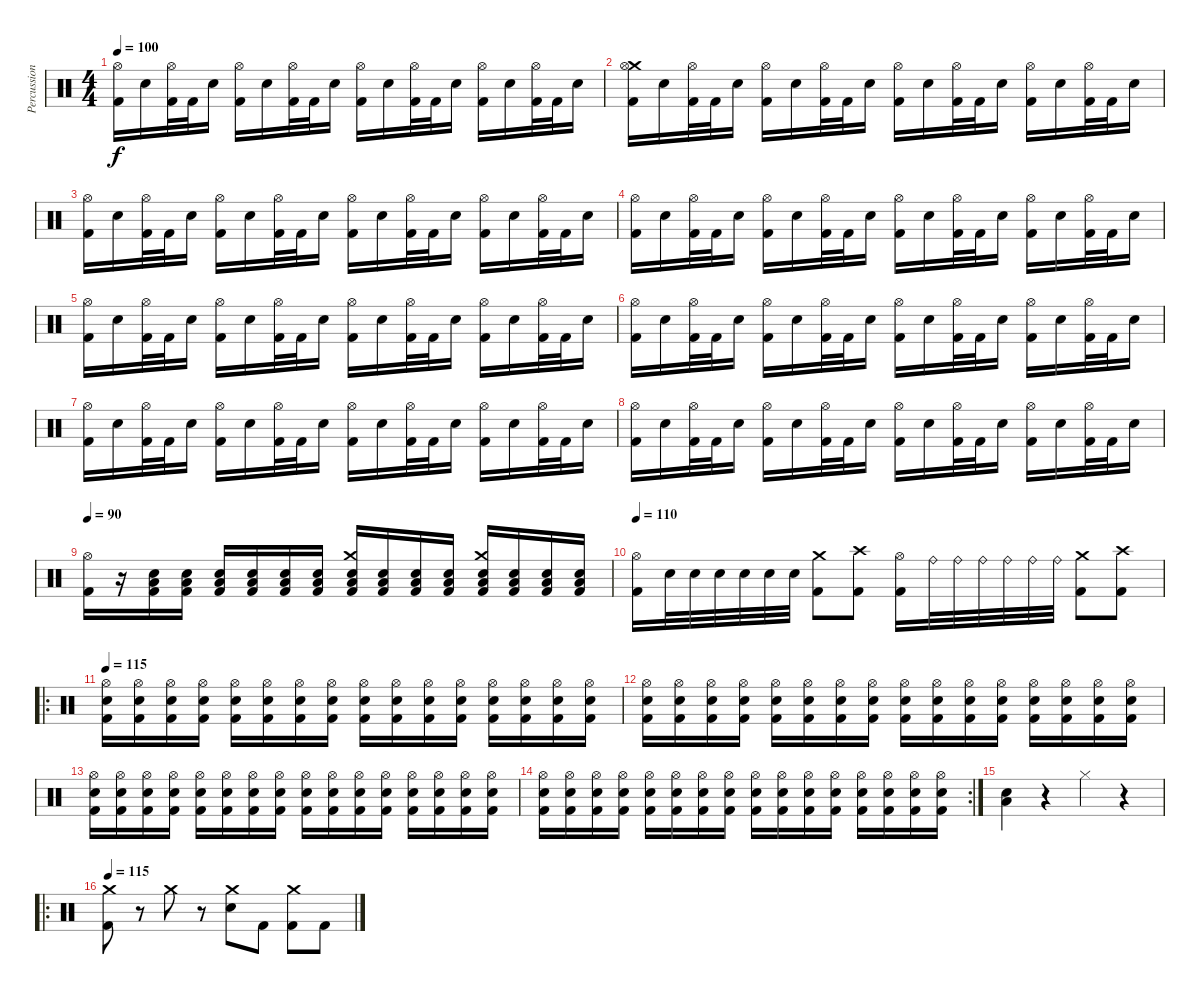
\track ("Percussion" "Percussion") {instrument percussion}
\staff {score}
\articulation defaults
\ts (4 4)
\tempo 100
\clef neutral
\ks c
("Hi-Hat (open)" "Kick (hit) 2").16{dy f} "Snare (hit) 2".16 ("Hi-Hat (open)" "Kick (hit) 2").32 "Kick (hit) 2".32 "Snare (hit) 2".16 ("Hi-Hat (open)" "Kick (hit) 2").16 "Snare (hit) 2".16 ("Hi-Hat (open)" "Kick (hit) 2").32 "Kick (hit) 2".32 "Snare (hit) 2".16 ("Hi-Hat (open)" "Kick (hit) 2").16 "Snare (hit) 2".16 ("Hi-Hat (open)" "Kick (hit) 2").32 "Kick (hit) 2".32 "Snare (hit) 2".16 ("Hi-Hat (open)" "Kick (hit) 2").16 "Snare (hit) 2".16 ("Hi-Hat (open)" "Kick (hit) 2").32 "Kick (hit) 2".32 "Snare (hit) 2".16 |
("Crash medium (hit)" "Hi-Hat (open)" "Kick (hit) 2").16 "Snare (hit) 2".16 ("Hi-Hat (open)" "Kick (hit) 2").32 "Kick (hit) 2".32 "Snare (hit) 2".16 ("Hi-Hat (open)" "Kick (hit) 2").16 "Snare (hit) 2".16 ("Hi-Hat (open)" "Kick (hit) 2").32 "Kick (hit) 2".32 "Snare (hit) 2".16 ("Hi-Hat (open)" "Kick (hit) 2").16 "Snare (hit) 2".16 ("Hi-Hat (open)" "Kick (hit) 2").32 "Kick (hit) 2".32 "Snare (hit) 2".16 ("Hi-Hat (open)" "Kick (hit) 2").16 "Snare (hit) 2".16 ("Hi-Hat (open)" "Kick (hit) 2").32 "Kick (hit) 2".32 "Snare (hit) 2".16 |
("Hi-Hat (open)" "Kick (hit) 2").16 "Snare (hit) 2".16 ("Hi-Hat (open)" "Kick (hit) 2").32 "Kick (hit) 2".32 "Snare (hit) 2".16 ("Hi-Hat (open)" "Kick (hit) 2").16 "Snare (hit) 2".16 ("Hi-Hat (open)" "Kick (hit) 2").32 "Kick (hit) 2".32 "Snare (hit) 2".16 ("Hi-Hat (open)" "Kick (hit) 2").16 "Snare (hit) 2".16 ("Hi-Hat (open)" "Kick (hit) 2").32 "Kick (hit) 2".32 "Snare (hit) 2".16 ("Hi-Hat (open)" "Kick (hit) 2").16 "Snare (hit) 2".16 ("Hi-Hat (open)" "Kick (hit) 2").32 "Kick (hit) 2".32 "Snare (hit) 2".16 |
("Hi-Hat (open)" "Kick (hit) 2").16 "Snare (hit) 2".16 ("Hi-Hat (open)" "Kick (hit) 2").32 "Kick (hit) 2".32 "Snare (hit) 2".16 ("Hi-Hat (open)" "Kick (hit) 2").16 "Snare (hit) 2".16 ("Hi-Hat (open)" "Kick (hit) 2").32 "Kick (hit) 2".32 "Snare (hit) 2".16 ("Hi-Hat (open)" "Kick (hit) 2").16 "Snare (hit) 2".16 ("Hi-Hat (open)" "Kick (hit) 2").32 "Kick (hit) 2".32 "Snare (hit) 2".16 ("Hi-Hat (open)" "Kick (hit) 2").16 "Snare (hit) 2".16 ("Hi-Hat (open)" "Kick (hit) 2").32 "Kick (hit) 2".32 "Snare (hit) 2".16 |
("Hi-Hat (open)" "Kick (hit) 2").16 "Snare (hit) 2".16 ("Hi-Hat (open)" "Kick (hit) 2").32 "Kick (hit) 2".32 "Snare (hit) 2".16 ("Hi-Hat (open)" "Kick (hit) 2").16 "Snare (hit) 2".16 ("Hi-Hat (open)" "Kick (hit) 2").32 "Kick (hit) 2".32 "Snare (hit) 2".16 ("Hi-Hat (open)" "Kick (hit) 2").16 "Snare (hit) 2".16 ("Hi-Hat (open)" "Kick (hit) 2").32 "Kick (hit) 2".32 "Snare (hit) 2".16 ("Hi-Hat (open)" "Kick (hit) 2").16 "Snare (hit) 2".16 ("Hi-Hat (open)" "Kick (hit) 2").32 "Kick (hit) 2".32 "Snare (hit) 2".16 |
("Hi-Hat (open)" "Kick (hit) 2").16 "Snare (hit) 2".16 ("Hi-Hat (open)" "Kick (hit) 2").32 "Kick (hit) 2".32 "Snare (hit) 2".16 ("Hi-Hat (open)" "Kick (hit) 2").16 "Snare (hit) 2".16 ("Hi-Hat (open)" "Kick (hit) 2").32 "Kick (hit) 2".32 "Snare (hit) 2".16 ("Hi-Hat (open)" "Kick (hit) 2").16 "Snare (hit) 2".16 ("Hi-Hat (open)" "Kick (hit) 2").32 "Kick (hit) 2".32 "Snare (hit) 2".16 ("Hi-Hat (open)" "Kick (hit) 2").16 "Snare (hit) 2".16 ("Hi-Hat (open)" "Kick (hit) 2").32 "Kick (hit) 2".32 "Snare (hit) 2".16 |
("Hi-Hat (open)" "Kick (hit) 2").16 "Snare (hit) 2".16 ("Hi-Hat (open)" "Kick (hit) 2").32 "Kick (hit) 2".32 "Snare (hit) 2".16 ("Hi-Hat (open)" "Kick (hit) 2").16 "Snare (hit) 2".16 ("Hi-Hat (open)" "Kick (hit) 2").32 "Kick (hit) 2".32 "Snare (hit) 2".16 ("Hi-Hat (open)" "Kick (hit) 2").16 "Snare (hit) 2".16 ("Hi-Hat (open)" "Kick (hit) 2").32 "Kick (hit) 2".32 "Snare (hit) 2".16 ("Hi-Hat (open)" "Kick (hit) 2").16 "Snare (hit) 2".16 ("Hi-Hat (open)" "Kick (hit) 2").32 "Kick (hit) 2".32 "Snare (hit) 2".16 |
("Hi-Hat (open)" "Kick (hit) 2").16 "Snare (hit) 2".16 ("Hi-Hat (open)" "Kick (hit) 2").32 "Kick (hit) 2".32 "Snare (hit) 2".16 ("Hi-Hat (open)" "Kick (hit) 2").16 "Snare (hit) 2".16 ("Hi-Hat (open)" "Kick (hit) 2").32 "Kick (hit) 2".32 "Snare (hit) 2".16 ("Hi-Hat (open)" "Kick (hit) 2").16 "Snare (hit) 2".16 ("Hi-Hat (open)" "Kick (hit) 2").32 "Kick (hit) 2".32 "Snare (hit) 2".16 ("Hi-Hat (open)" "Kick (hit) 2").16 "Snare (hit) 2".16 ("Hi-Hat (open)" "Kick (hit) 2").32 "Kick (hit) 2".32 "Snare (hit) 2".16 |
\tempo 90
("Hi-Hat (open)" "Kick (hit) 2").16 r.16 ("Snare (hit) 2" "Low Tom (hit)" "Kick (hit) 2").16 ("Snare (hit) 2" "Low Tom (hit)" "Kick (hit) 2").16 ("Snare (hit) 2" "Low Tom (hit)" "Kick (hit) 2").16 ("Snare (hit) 2" "Low Tom (hit)" "Kick (hit) 2").16 ("Snare (hit) 2" "Low Tom (hit)" "Kick (hit) 2").16 ("Snare (hit) 2" "Low Tom (hit)" "Kick (hit) 2").16 ("Crash medium (hit)" "Snare (hit) 2" "Low Tom (hit)" "Kick (hit) 2").16 ("Snare (hit) 2" "Low Tom (hit)" "Kick (hit) 2").16 ("Snare (hit) 2" "Low Tom (hit)" "Kick (hit) 2").16 ("Snare (hit) 2" "Low Tom (hit)" "Kick (hit) 2").16 ("Crash medium (hit)" "Snare (hit) 2" "Low Tom (hit)" "Kick (hit) 2").16 ("Snare (hit) 2" "Low Tom (hit)" "Kick (hit) 2").16 ("Snare (hit) 2" "Low Tom (hit)" "Kick (hit) 2").16 ("Snare (hit) 2" "Low Tom (hit)" "Kick (hit) 2").16 |
\tempo 110
("Hi-Hat (open)" "Kick (hit) 2").16 "Snare (hit) 2".32 "Snare (hit) 2".32 "Snare (hit) 2".32 "Snare (hit) 2".32 "Snare (hit) 2".32 "Snare (hit) 2".32 ("Crash medium (hit)" "Kick (hit) 2").8 ("Crash high (hit)" "Kick (hit) 2").8 ("Hi-Hat (open)" "Kick (hit) 2").16 "Ride (bell)".32 "Ride (bell)".32 "Ride (bell)".32 "Ride (bell)".32 "Ride (bell)".32 "Ride (bell)".32 ("Crash medium (hit)" "Kick (hit) 2").8 ("Crash high (hit)" "Kick (hit) 2").8 |
\ro
\tempo 115
("Hi-Hat (open)" "Snare (hit) 2" "Kick (hit) 2").16 ("Hi-Hat (open)" "Snare (hit) 2" "Kick (hit) 2").16 ("Hi-Hat (open)" "Snare (hit) 2" "Kick (hit) 2").16 ("Hi-Hat (open)" "Snare (hit) 2" "Kick (hit) 2").16 ("Hi-Hat (open)" "Snare (hit) 2" "Kick (hit) 2").16 ("Hi-Hat (open)" "Snare (hit) 2" "Kick (hit) 2").16 ("Hi-Hat (open)" "Snare (hit) 2" "Kick (hit) 2").16 ("Hi-Hat (open)" "Snare (hit) 2" "Kick (hit) 2").16 ("Hi-Hat (open)" "Snare (hit) 2" "Kick (hit) 2").16 ("Hi-Hat (open)" "Snare (hit) 2" "Kick (hit) 2").16 ("Hi-Hat (open)" "Snare (hit) 2" "Kick (hit) 2").16 ("Hi-Hat (open)" "Snare (hit) 2" "Kick (hit) 2").16 ("Hi-Hat (open)" "Snare (hit) 2" "Kick (hit) 2").16 ("Hi-Hat (open)" "Snare (hit) 2" "Kick (hit) 2").16 ("Hi-Hat (open)" "Snare (hit) 2" "Kick (hit) 2").16 ("Hi-Hat (open)" "Snare (hit) 2" "Kick (hit) 2").16 |
("Hi-Hat (open)" "Snare (hit) 2" "Kick (hit) 2").16 ("Hi-Hat (open)" "Snare (hit) 2" "Kick (hit) 2").16 ("Hi-Hat (open)" "Snare (hit) 2" "Kick (hit) 2").16 ("Hi-Hat (open)" "Snare (hit) 2" "Kick (hit) 2").16 ("Hi-Hat (open)" "Snare (hit) 2" "Kick (hit) 2").16 ("Hi-Hat (open)" "Snare (hit) 2" "Kick (hit) 2").16 ("Hi-Hat (open)" "Snare (hit) 2" "Kick (hit) 2").16 ("Hi-Hat (open)" "Snare (hit) 2" "Kick (hit) 2").16 ("Hi-Hat (open)" "Snare (hit) 2" "Kick (hit) 2").16 ("Hi-Hat (open)" "Snare (hit) 2" "Kick (hit) 2").16 ("Hi-Hat (open)" "Snare (hit) 2" "Kick (hit) 2").16 ("Hi-Hat (open)" "Snare (hit) 2" "Kick (hit) 2").16 ("Hi-Hat (open)" "Snare (hit) 2" "Kick (hit) 2").16 ("Hi-Hat (open)" "Snare (hit) 2" "Kick (hit) 2").16 ("Hi-Hat (open)" "Snare (hit) 2" "Kick (hit) 2").16 ("Hi-Hat (open)" "Snare (hit) 2" "Kick (hit) 2").16 |
("Hi-Hat (open)" "Snare (hit) 2" "Kick (hit) 2").16 ("Hi-Hat (open)" "Snare (hit) 2" "Kick (hit) 2").16 ("Hi-Hat (open)" "Snare (hit) 2" "Kick (hit) 2").16 ("Hi-Hat (open)" "Snare (hit) 2" "Kick (hit) 2").16 ("Hi-Hat (open)" "Snare (hit) 2" "Kick (hit) 2").16 ("Hi-Hat (open)" "Snare (hit) 2" "Kick (hit) 2").16 ("Hi-Hat (open)" "Snare (hit) 2" "Kick (hit) 2").16 ("Hi-Hat (open)" "Snare (hit) 2" "Kick (hit) 2").16 ("Hi-Hat (open)" "Snare (hit) 2" "Kick (hit) 2").16 ("Hi-Hat (open)" "Snare (hit) 2" "Kick (hit) 2").16 ("Hi-Hat (open)" "Snare (hit) 2" "Kick (hit) 2").16 ("Hi-Hat (open)" "Snare (hit) 2" "Kick (hit) 2").16 ("Hi-Hat (open)" "Snare (hit) 2" "Kick (hit) 2").16 ("Hi-Hat (open)" "Snare (hit) 2" "Kick (hit) 2").16 ("Hi-Hat (open)" "Snare (hit) 2" "Kick (hit) 2").16 ("Hi-Hat (open)" "Snare (hit) 2" "Kick (hit) 2").16 |
\rc 2
("Hi-Hat (open)" "Snare (hit) 2" "Kick (hit) 2").16 ("Hi-Hat (open)" "Snare (hit) 2" "Kick (hit) 2").16 ("Hi-Hat (open)" "Snare (hit) 2" "Kick (hit) 2").16 ("Hi-Hat (open)" "Snare (hit) 2" "Kick (hit) 2").16 ("Hi-Hat (open)" "Snare (hit) 2" "Kick (hit) 2").16 ("Hi-Hat (open)" "Snare (hit) 2" "Kick (hit) 2").16 ("Hi-Hat (open)" "Snare (hit) 2" "Kick (hit) 2").16 ("Hi-Hat (open)" "Snare (hit) 2" "Kick (hit) 2").16 ("Hi-Hat (open)" "Snare (hit) 2" "Kick (hit) 2").16 ("Hi-Hat (open)" "Snare (hit) 2" "Kick (hit) 2").16 ("Hi-Hat (open)" "Snare (hit) 2" "Kick (hit) 2").16 ("Hi-Hat (open)" "Snare (hit) 2" "Kick (hit) 2").16 ("Hi-Hat (open)" "Snare (hit) 2" "Kick (hit) 2").16 ("Hi-Hat (open)" "Snare (hit) 2" "Kick (hit) 2").16 ("Hi-Hat (open)" "Snare (hit) 2" "Kick (hit) 2").16 ("Hi-Hat (open)" "Snare (hit) 2" "Kick (hit) 2").16 |
("Low Tom (hit)" "Snare (hit) 2").4 r.4 "Hi-Hat (closed)".4 r.4 |
\ro
\tempo 115
("Crash medium (hit)" "Kick (hit) 2").8 r.8 "Crash medium (hit)".8 r.8 ("Crash medium (hit)" "Snare (hit) 2").8 "Kick (hit) 2".8 ("Crash medium (hit)" "Kick (hit) 2").8 "Kick (hit) 2".8
